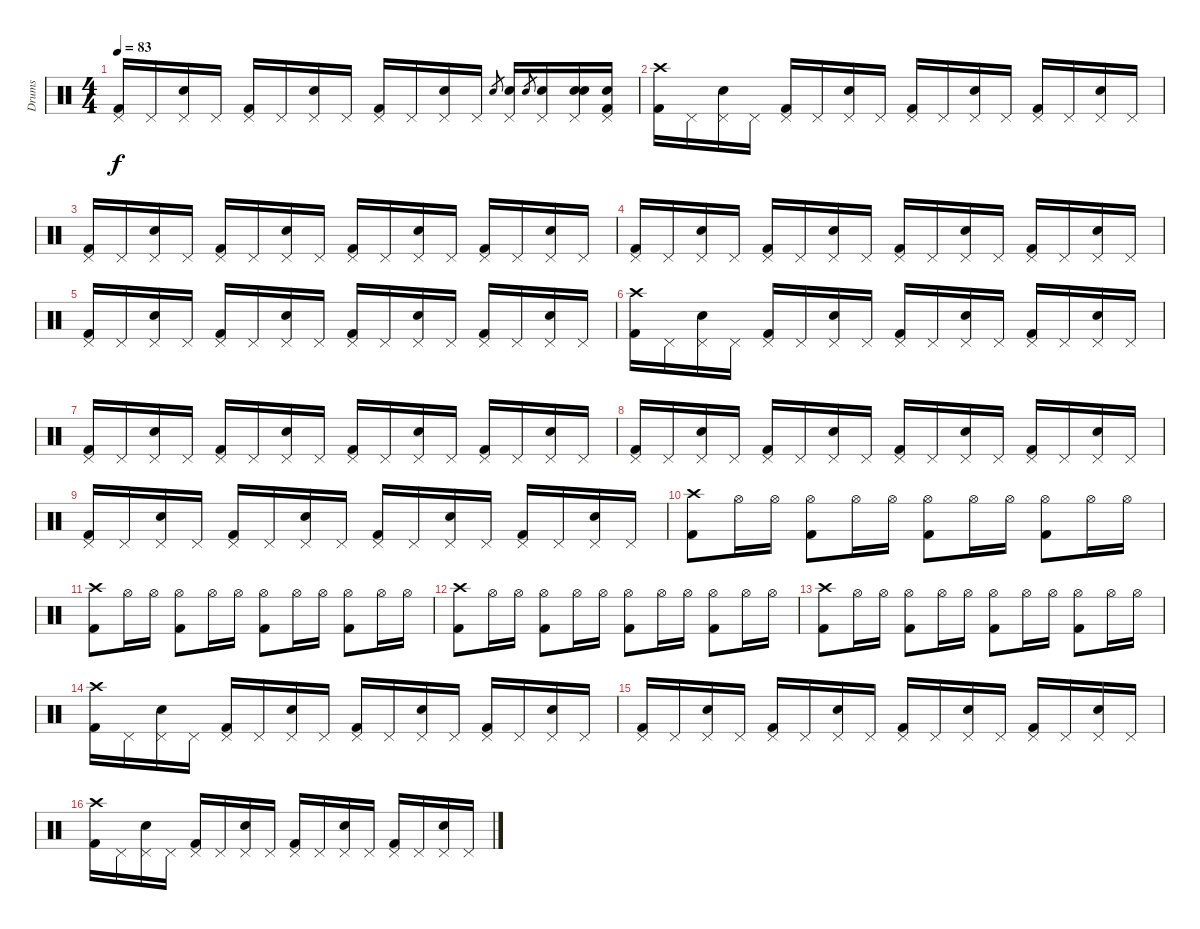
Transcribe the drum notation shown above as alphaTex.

\track ("Drums" "Drums") {instrument percussion}
\staff {score}
\articulation defaults
\ts (4 4)
\tempo 83
\clef neutral
\ks c
("Pedal Hi-Hat (hit)" "Kick (hit) 2").16{dy f} "Pedal Hi-Hat (hit)".16 ("Pedal Hi-Hat (hit)" "Snare (hit) 2").16 "Pedal Hi-Hat (hit)".16 ("Pedal Hi-Hat (hit)" "Kick (hit) 2").16 "Pedal Hi-Hat (hit)".16 ("Pedal Hi-Hat (hit)" "Snare (hit) 2").16 "Pedal Hi-Hat (hit)".16 ("Pedal Hi-Hat (hit)" "Kick (hit) 2").16 "Pedal Hi-Hat (hit)".16 ("Pedal Hi-Hat (hit)" "Snare (hit) 2").16 "Pedal Hi-Hat (hit)".16 "Snare (hit) 2".8{gr} ("Pedal Hi-Hat (hit)" "Snare (hit) 2").16 "Snare (hit) 2".8{gr} ("Pedal Hi-Hat (hit)" "Snare (hit) 2").16 ("Pedal Hi-Hat (hit)" "Snare (hit) 2" "Snare (hit) 2").16 ("Pedal Hi-Hat (hit)" "Snare (hit) 2" "Kick (hit) 2").16 |
("Crash high (hit)" "Kick (hit) 2").16 "Pedal Hi-Hat (hit)".16 ("Pedal Hi-Hat (hit)" "Snare (hit) 2").16 "Pedal Hi-Hat (hit)".16 ("Pedal Hi-Hat (hit)" "Kick (hit) 2").16 "Pedal Hi-Hat (hit)".16 ("Pedal Hi-Hat (hit)" "Snare (hit) 2").16 "Pedal Hi-Hat (hit)".16 ("Pedal Hi-Hat (hit)" "Kick (hit) 2").16 "Pedal Hi-Hat (hit)".16 ("Pedal Hi-Hat (hit)" "Snare (hit) 2").16 "Pedal Hi-Hat (hit)".16 ("Pedal Hi-Hat (hit)" "Kick (hit) 2").16 "Pedal Hi-Hat (hit)".16 ("Pedal Hi-Hat (hit)" "Snare (hit) 2").16 "Pedal Hi-Hat (hit)".16 |
("Pedal Hi-Hat (hit)" "Kick (hit) 2").16 "Pedal Hi-Hat (hit)".16 ("Pedal Hi-Hat (hit)" "Snare (hit) 2").16 "Pedal Hi-Hat (hit)".16 ("Pedal Hi-Hat (hit)" "Kick (hit) 2").16 "Pedal Hi-Hat (hit)".16 ("Pedal Hi-Hat (hit)" "Snare (hit) 2").16 "Pedal Hi-Hat (hit)".16 ("Pedal Hi-Hat (hit)" "Kick (hit) 2").16 "Pedal Hi-Hat (hit)".16 ("Pedal Hi-Hat (hit)" "Snare (hit) 2").16 "Pedal Hi-Hat (hit)".16 ("Pedal Hi-Hat (hit)" "Kick (hit) 2").16 "Pedal Hi-Hat (hit)".16 ("Pedal Hi-Hat (hit)" "Snare (hit) 2").16 "Pedal Hi-Hat (hit)".16 |
("Pedal Hi-Hat (hit)" "Kick (hit) 2").16 "Pedal Hi-Hat (hit)".16 ("Pedal Hi-Hat (hit)" "Snare (hit) 2").16 "Pedal Hi-Hat (hit)".16 ("Pedal Hi-Hat (hit)" "Kick (hit) 2").16 "Pedal Hi-Hat (hit)".16 ("Pedal Hi-Hat (hit)" "Snare (hit) 2").16 "Pedal Hi-Hat (hit)".16 ("Pedal Hi-Hat (hit)" "Kick (hit) 2").16 "Pedal Hi-Hat (hit)".16 ("Pedal Hi-Hat (hit)" "Snare (hit) 2").16 "Pedal Hi-Hat (hit)".16 ("Pedal Hi-Hat (hit)" "Kick (hit) 2").16 "Pedal Hi-Hat (hit)".16 ("Pedal Hi-Hat (hit)" "Snare (hit) 2").16 "Pedal Hi-Hat (hit)".16 |
("Pedal Hi-Hat (hit)" "Kick (hit) 2").16 "Pedal Hi-Hat (hit)".16 ("Pedal Hi-Hat (hit)" "Snare (hit) 2").16 "Pedal Hi-Hat (hit)".16 ("Pedal Hi-Hat (hit)" "Kick (hit) 2").16 "Pedal Hi-Hat (hit)".16 ("Pedal Hi-Hat (hit)" "Snare (hit) 2").16 "Pedal Hi-Hat (hit)".16 ("Pedal Hi-Hat (hit)" "Kick (hit) 2").16 "Pedal Hi-Hat (hit)".16 ("Pedal Hi-Hat (hit)" "Snare (hit) 2").16 "Pedal Hi-Hat (hit)".16 ("Pedal Hi-Hat (hit)" "Kick (hit) 2").16 "Pedal Hi-Hat (hit)".16 ("Pedal Hi-Hat (hit)" "Snare (hit) 2").16 "Pedal Hi-Hat (hit)".16 |
("Crash high (hit)" "Kick (hit) 2").16 "Pedal Hi-Hat (hit)".16 ("Pedal Hi-Hat (hit)" "Snare (hit) 2").16 "Pedal Hi-Hat (hit)".16 ("Pedal Hi-Hat (hit)" "Kick (hit) 2").16 "Pedal Hi-Hat (hit)".16 ("Pedal Hi-Hat (hit)" "Snare (hit) 2").16 "Pedal Hi-Hat (hit)".16 ("Pedal Hi-Hat (hit)" "Kick (hit) 2").16 "Pedal Hi-Hat (hit)".16 ("Pedal Hi-Hat (hit)" "Snare (hit) 2").16 "Pedal Hi-Hat (hit)".16 ("Pedal Hi-Hat (hit)" "Kick (hit) 2").16 "Pedal Hi-Hat (hit)".16 ("Pedal Hi-Hat (hit)" "Snare (hit) 2").16 "Pedal Hi-Hat (hit)".16 |
("Pedal Hi-Hat (hit)" "Kick (hit) 2").16 "Pedal Hi-Hat (hit)".16 ("Pedal Hi-Hat (hit)" "Snare (hit) 2").16 "Pedal Hi-Hat (hit)".16 ("Pedal Hi-Hat (hit)" "Kick (hit) 2").16 "Pedal Hi-Hat (hit)".16 ("Pedal Hi-Hat (hit)" "Snare (hit) 2").16 "Pedal Hi-Hat (hit)".16 ("Pedal Hi-Hat (hit)" "Kick (hit) 2").16 "Pedal Hi-Hat (hit)".16 ("Pedal Hi-Hat (hit)" "Snare (hit) 2").16 "Pedal Hi-Hat (hit)".16 ("Pedal Hi-Hat (hit)" "Kick (hit) 2").16 "Pedal Hi-Hat (hit)".16 ("Pedal Hi-Hat (hit)" "Snare (hit) 2").16 "Pedal Hi-Hat (hit)".16 |
("Pedal Hi-Hat (hit)" "Kick (hit) 2").16 "Pedal Hi-Hat (hit)".16 ("Pedal Hi-Hat (hit)" "Snare (hit) 2").16 "Pedal Hi-Hat (hit)".16 ("Pedal Hi-Hat (hit)" "Kick (hit) 2").16 "Pedal Hi-Hat (hit)".16 ("Pedal Hi-Hat (hit)" "Snare (hit) 2").16 "Pedal Hi-Hat (hit)".16 ("Pedal Hi-Hat (hit)" "Kick (hit) 2").16 "Pedal Hi-Hat (hit)".16 ("Pedal Hi-Hat (hit)" "Snare (hit) 2").16 "Pedal Hi-Hat (hit)".16 ("Pedal Hi-Hat (hit)" "Kick (hit) 2").16 "Pedal Hi-Hat (hit)".16 ("Pedal Hi-Hat (hit)" "Snare (hit) 2").16 "Pedal Hi-Hat (hit)".16 |
("Pedal Hi-Hat (hit)" "Kick (hit) 2").16 "Pedal Hi-Hat (hit)".16 ("Pedal Hi-Hat (hit)" "Snare (hit) 2").16 "Pedal Hi-Hat (hit)".16 ("Pedal Hi-Hat (hit)" "Kick (hit) 2").16 "Pedal Hi-Hat (hit)".16 ("Pedal Hi-Hat (hit)" "Snare (hit) 2").16 "Pedal Hi-Hat (hit)".16 ("Pedal Hi-Hat (hit)" "Kick (hit) 2").16 "Pedal Hi-Hat (hit)".16 ("Pedal Hi-Hat (hit)" "Snare (hit) 2").16 "Pedal Hi-Hat (hit)".16 ("Pedal Hi-Hat (hit)" "Kick (hit) 2").16 "Pedal Hi-Hat (hit)".16 ("Pedal Hi-Hat (hit)" "Snare (hit) 2").16 "Pedal Hi-Hat (hit)".16 |
("Crash high (hit)" "Kick (hit) 2").8 "Hi-Hat (open)".16 "Hi-Hat (open)".16 ("Hi-Hat (open)" "Kick (hit) 2").8 "Hi-Hat (open)".16 "Hi-Hat (open)".16 ("Hi-Hat (open)" "Kick (hit) 2").8 "Hi-Hat (open)".16 "Hi-Hat (open)".16 ("Hi-Hat (open)" "Kick (hit) 2").8 "Hi-Hat (open)".16 "Hi-Hat (open)".16 |
("Crash high (hit)" "Kick (hit) 2").8 "Hi-Hat (open)".16 "Hi-Hat (open)".16 ("Hi-Hat (open)" "Kick (hit) 2").8 "Hi-Hat (open)".16 "Hi-Hat (open)".16 ("Hi-Hat (open)" "Kick (hit) 2").8 "Hi-Hat (open)".16 "Hi-Hat (open)".16 ("Hi-Hat (open)" "Kick (hit) 2").8 "Hi-Hat (open)".16 "Hi-Hat (open)".16 |
("Crash high (hit)" "Kick (hit) 2").8 "Hi-Hat (open)".16 "Hi-Hat (open)".16 ("Hi-Hat (open)" "Kick (hit) 2").8 "Hi-Hat (open)".16 "Hi-Hat (open)".16 ("Hi-Hat (open)" "Kick (hit) 2").8 "Hi-Hat (open)".16 "Hi-Hat (open)".16 ("Hi-Hat (open)" "Kick (hit) 2").8 "Hi-Hat (open)".16 "Hi-Hat (open)".16 |
("Crash high (hit)" "Kick (hit) 2").8 "Hi-Hat (open)".16 "Hi-Hat (open)".16 ("Hi-Hat (open)" "Kick (hit) 2").8 "Hi-Hat (open)".16 "Hi-Hat (open)".16 ("Hi-Hat (open)" "Kick (hit) 2").8 "Hi-Hat (open)".16 "Hi-Hat (open)".16 ("Hi-Hat (open)" "Kick (hit) 2").8 "Hi-Hat (open)".16 "Hi-Hat (open)".16 |
("Crash high (hit)" "Kick (hit) 2").16 "Pedal Hi-Hat (hit)".16 ("Pedal Hi-Hat (hit)" "Snare (hit) 2").16 "Pedal Hi-Hat (hit)".16 ("Pedal Hi-Hat (hit)" "Kick (hit) 2").16 "Pedal Hi-Hat (hit)".16 ("Pedal Hi-Hat (hit)" "Snare (hit) 2").16 "Pedal Hi-Hat (hit)".16 ("Pedal Hi-Hat (hit)" "Kick (hit) 2").16 "Pedal Hi-Hat (hit)".16 ("Pedal Hi-Hat (hit)" "Snare (hit) 2").16 "Pedal Hi-Hat (hit)".16 ("Pedal Hi-Hat (hit)" "Kick (hit) 2").16 "Pedal Hi-Hat (hit)".16 ("Pedal Hi-Hat (hit)" "Snare (hit) 2").16 "Pedal Hi-Hat (hit)".16 |
("Pedal Hi-Hat (hit)" "Kick (hit) 2").16 "Pedal Hi-Hat (hit)".16 ("Pedal Hi-Hat (hit)" "Snare (hit) 2").16 "Pedal Hi-Hat (hit)".16 ("Pedal Hi-Hat (hit)" "Kick (hit) 2").16 "Pedal Hi-Hat (hit)".16 ("Pedal Hi-Hat (hit)" "Snare (hit) 2").16 "Pedal Hi-Hat (hit)".16 ("Pedal Hi-Hat (hit)" "Kick (hit) 2").16 "Pedal Hi-Hat (hit)".16 ("Pedal Hi-Hat (hit)" "Snare (hit) 2").16 "Pedal Hi-Hat (hit)".16 ("Pedal Hi-Hat (hit)" "Kick (hit) 2").16 "Pedal Hi-Hat (hit)".16 ("Pedal Hi-Hat (hit)" "Snare (hit) 2").16 "Pedal Hi-Hat (hit)".16 |
("Crash high (hit)" "Kick (hit) 2").16 "Pedal Hi-Hat (hit)".16 ("Pedal Hi-Hat (hit)" "Snare (hit) 2").16 "Pedal Hi-Hat (hit)".16 ("Pedal Hi-Hat (hit)" "Kick (hit) 2").16 "Pedal Hi-Hat (hit)".16 ("Pedal Hi-Hat (hit)" "Snare (hit) 2").16 "Pedal Hi-Hat (hit)".16 ("Pedal Hi-Hat (hit)" "Kick (hit) 2").16 "Pedal Hi-Hat (hit)".16 ("Pedal Hi-Hat (hit)" "Snare (hit) 2").16 "Pedal Hi-Hat (hit)".16 ("Pedal Hi-Hat (hit)" "Kick (hit) 2").16 "Pedal Hi-Hat (hit)".16 ("Pedal Hi-Hat (hit)" "Snare (hit) 2").16 "Pedal Hi-Hat (hit)".16
